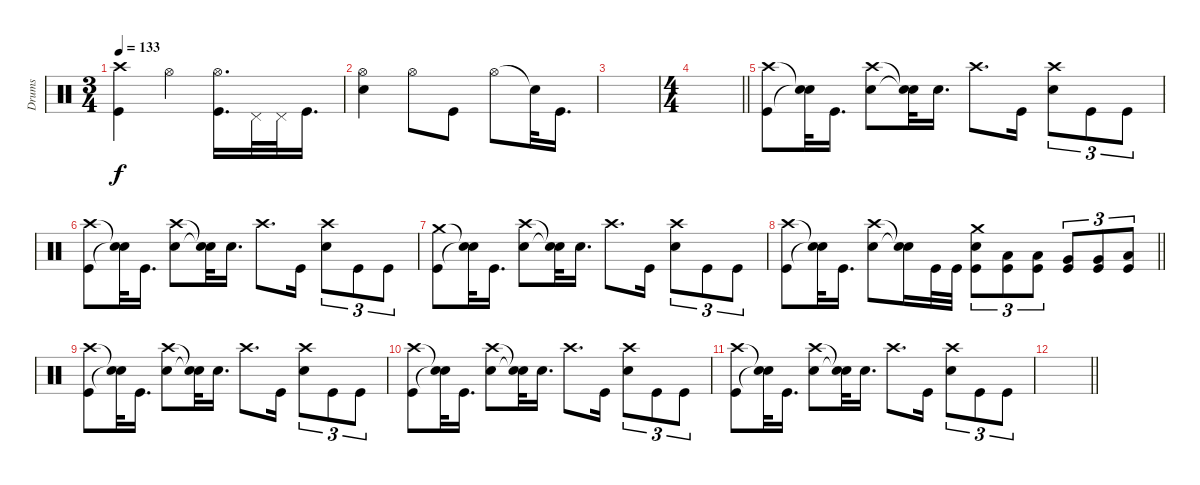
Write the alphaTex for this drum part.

\track ("Drums" "Drums") {instrument percussion}
\staff
\articulation defaults
\ts (3 4)
\tempo 133
\clef neutral
\ks c
("Crash high (hit)" "Kick (hit)").4{dy f} "Hi-Hat (open)".4 ("Hi-Hat (open)" "Kick (hit)").16{d} "Pedal Hi-Hat (hit)".32 "Pedal Hi-Hat (hit)".32 "Kick (hit)".16{d} |
("Hi-Hat (open)" "Electric Snare (hit)").4 "Hi-Hat (open)".8 "Kick (hit)".8 "Hi-Hat (open)".8 "Snare (hit)"{t}.32 "Kick (hit)".16{d} |
|
\ts (4 4)
\barLineRight lightlight
|
\section ("" "")
("Crash high (hit)" "Kick (hit)").8 ("Snare (hit)"{t} "Snare (hit)"{t}).32 "Kick (hit)".16{d} ("Crash high (hit)" "Electric Snare (hit)").8 ("Snare (hit)"{t} "Snare (hit)"{t}).32 "Electric Snare (hit)".16{d} "Crash high (hit)".8{d} "Kick (hit)".16 ("Crash high (hit)" "Electric Snare (hit)").8{tu (3 2)} "Kick (hit)".8{tu (3 2)} "Kick (hit)".8{tu (3 2)} |
("Crash high (hit)" "Kick (hit)").8 ("Snare (hit)"{t} "Snare (hit)"{t}).32 "Kick (hit)".16{d} ("Crash high (hit)" "Electric Snare (hit)").8 ("Snare (hit)"{t} "Snare (hit)"{t}).32 "Electric Snare (hit)".16{d} "Crash high (hit)".8{d} "Kick (hit)".16 ("Crash high (hit)" "Electric Snare (hit)").8{tu (3 2)} "Kick (hit)".8{tu (3 2)} "Kick (hit)".8{tu (3 2)} |
("Crash medium (hit)" "Kick (hit)").8 ("Snare (hit)"{t} "Snare (hit)"{t}).32 "Kick (hit)".16{d} ("Crash high (hit)" "Electric Snare (hit)").8 ("Snare (hit)"{t} "Snare (hit)"{t}).32 "Electric Snare (hit)".16{d} "Crash high (hit)".8{d} "Kick (hit)".16 ("Crash high (hit)" "Electric Snare (hit)").8{tu (3 2)} "Kick (hit)".8{tu (3 2)} "Kick (hit)".8{tu (3 2)} |
\barLineRight lightlight
("Crash high (hit)" "Kick (hit)").8 ("Snare (hit)"{t} "Snare (hit)"{t}).32 "Kick (hit)".16{d} ("Crash high (hit)" "Electric Snare (hit)").8 ("Snare (hit)"{t} "Snare (hit)"{t}).16 "Kick (hit)".32 "Kick (hit)".32 ("Crash medium (hit)" "Electric Snare (hit)" "Kick (hit)").8{tu (3 2)} ("Low Tom (hit)" "Kick (hit)").8{tu (3 2)} ("Low Tom (hit)" "Kick (hit)").8{tu (3 2)} ("Very Low Tom (hit)" "Kick (hit)").8{tu (3 2)} ("Very Low Tom (hit)" "Kick (hit)").8{tu (3 2)} ("Low Floor Tom (hit)" "Kick (hit)").8{tu (3 2)} |
("Crash high (hit)" "Kick (hit)").8 ("Snare (hit)"{t} "Snare (hit)"{t}).32 "Kick (hit)".16{d} ("Crash high (hit)" "Electric Snare (hit)").8 ("Snare (hit)"{t} "Snare (hit)"{t}).32 "Electric Snare (hit)".16{d} "Crash high (hit)".8{d} "Kick (hit)".16 ("Crash high (hit)" "Electric Snare (hit)").8{tu (3 2)} "Kick (hit)".8{tu (3 2)} "Kick (hit)".8{tu (3 2)} |
("Crash high (hit)" "Kick (hit)").8 ("Snare (hit)"{t} "Snare (hit)"{t}).32 "Kick (hit)".16{d} ("Crash high (hit)" "Electric Snare (hit)").8 ("Snare (hit)"{t} "Snare (hit)"{t}).32 "Electric Snare (hit)".16{d} "Crash high (hit)".8{d} "Kick (hit)".16 ("Crash high (hit)" "Electric Snare (hit)").8{tu (3 2)} "Kick (hit)".8{tu (3 2)} "Kick (hit)".8{tu (3 2)} |
("Crash high (hit)" "Kick (hit)").8 ("Snare (hit)"{t} "Snare (hit)"{t}).32 "Kick (hit)".16{d} ("Crash high (hit)" "Electric Snare (hit)").8 ("Snare (hit)"{t} "Snare (hit)"{t}).32 "Electric Snare (hit)".16{d} "Crash high (hit)".8{d} "Kick (hit)".16 ("Crash high (hit)" "Electric Snare (hit)").8{tu (3 2)} "Kick (hit)".8{tu (3 2)} "Kick (hit)".8{tu (3 2)} |
\barLineRight lightlight
